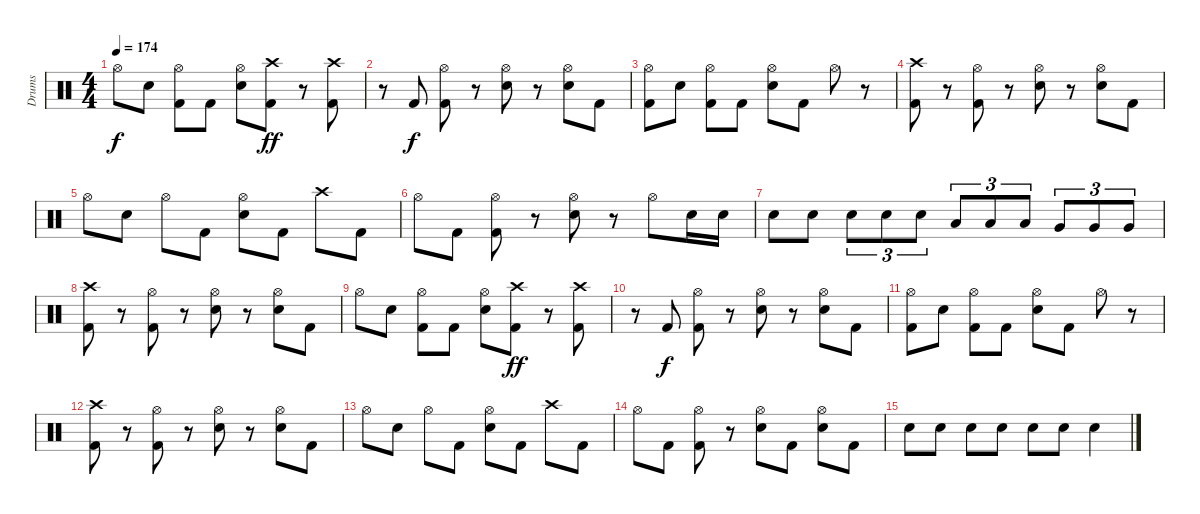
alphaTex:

\track ("Drums" "Drums") {instrument percussion}
\staff {score}
\articulation defaults
\ts (4 4)
\tempo 174
\clef neutral
\ks c "Hi-Hat (open)".8{dy f} "Electric Snare (hit)".8
("Hi-Hat (open)" "Kick (hit) 2").8 "Kick (hit) 2".8 ("Hi-Hat (open)" "Electric Snare (hit)").8 ("Crash high (hit)" "Kick (hit) 2").8{dy ff} r.8 ("Crash high (hit)" "Kick (hit) 2").8 |
r.8 "Kick (hit) 2".8{dy f} ("Hi-Hat (open)" "Kick (hit) 2").8 r.8 ("Hi-Hat (open)" "Electric Snare (hit)").8 r.8 ("Hi-Hat (open)" "Electric Snare (hit)").8 "Kick (hit) 2".8 |
("Hi-Hat (open)" "Kick (hit) 2").8 "Electric Snare (hit)".8 ("Hi-Hat (open)" "Kick (hit) 2").8 "Kick (hit) 2".8 ("Hi-Hat (open)" "Electric Snare (hit)").8 "Kick (hit) 2".8 "Hi-Hat (open)".8 r.8 |
("Crash high (hit)" "Kick (hit) 2").8 r.8 ("Hi-Hat (open)" "Kick (hit) 2").8 r.8 ("Hi-Hat (open)" "Electric Snare (hit)").8 r.8 ("Hi-Hat (open)" "Electric Snare (hit)").8 "Kick (hit) 2".8 |
"Hi-Hat (open)".8 "Electric Snare (hit)".8 "Hi-Hat (open)".8 "Kick (hit) 2".8 ("Hi-Hat (open)" "Electric Snare (hit)").8 "Kick (hit) 2".8 "Crash high (hit)".8 "Kick (hit) 2".8 |
"Hi-Hat (open)".8 "Kick (hit) 2".8 ("Hi-Hat (open)" "Kick (hit) 2").8 r.8 ("Hi-Hat (open)" "Electric Snare (hit)").8 r.8 "Hi-Hat (open)".8 "Electric Snare (hit)".16 "Electric Snare (hit)".16 |
"Electric Snare (hit)".8 "Electric Snare (hit)".8 "Electric Snare (hit)".8{tu (3 2)} "Electric Snare (hit)".8{tu (3 2)} "Electric Snare (hit)".8{tu (3 2)} "Low Tom (hit)".8{tu (3 2)} "Low Tom (hit)".8{tu (3 2)} "Low Tom (hit)".8{tu (3 2)} "Very Low Tom (hit)".8{tu (3 2)} "Very Low Tom (hit)".8{tu (3 2)} "Very Low Tom (hit)".8{tu (3 2)} |
("Crash high (hit)" "Kick (hit) 2").8 r.8 ("Hi-Hat (open)" "Kick (hit) 2").8 r.8 ("Hi-Hat (open)" "Electric Snare (hit)").8 r.8 ("Hi-Hat (open)" "Electric Snare (hit)").8 "Kick (hit) 2".8 |
"Hi-Hat (open)".8 "Electric Snare (hit)".8 ("Hi-Hat (open)" "Kick (hit) 2").8 "Kick (hit) 2".8 ("Hi-Hat (open)" "Electric Snare (hit)").8 ("Crash high (hit)" "Kick (hit) 2").8{dy ff} r.8 ("Crash high (hit)" "Kick (hit) 2").8 |
r.8 "Kick (hit) 2".8{dy f} ("Hi-Hat (open)" "Kick (hit) 2").8 r.8 ("Hi-Hat (open)" "Electric Snare (hit)").8 r.8 ("Hi-Hat (open)" "Electric Snare (hit)").8 "Kick (hit) 2".8 |
("Hi-Hat (open)" "Kick (hit) 2").8 "Electric Snare (hit)".8 ("Hi-Hat (open)" "Kick (hit) 2").8 "Kick (hit) 2".8 ("Hi-Hat (open)" "Electric Snare (hit)").8 "Kick (hit) 2".8 "Hi-Hat (open)".8 r.8 |
("Crash high (hit)" "Kick (hit) 2").8 r.8 ("Hi-Hat (open)" "Kick (hit) 2").8 r.8 ("Hi-Hat (open)" "Electric Snare (hit)").8 r.8 ("Hi-Hat (open)" "Electric Snare (hit)").8 "Kick (hit) 2".8 |
"Hi-Hat (open)".8 "Electric Snare (hit)".8 "Hi-Hat (open)".8 "Kick (hit) 2".8 ("Hi-Hat (open)" "Electric Snare (hit)").8 "Kick (hit) 2".8 "Crash high (hit)".8 "Kick (hit) 2".8 |
"Hi-Hat (open)".8 "Kick (hit) 2".8 ("Hi-Hat (open)" "Kick (hit) 2").8 r.8 ("Hi-Hat (open)" "Electric Snare (hit)").8 "Kick (hit) 2".8 ("Hi-Hat (open)" "Electric Snare (hit)").8 "Kick (hit) 2".8 |
"Electric Snare (hit)".8 "Electric Snare (hit)".8 "Electric Snare (hit)".8 "Electric Snare (hit)".8 "Electric Snare (hit)".8 "Electric Snare (hit)".8 "Electric Snare (hit)".4
